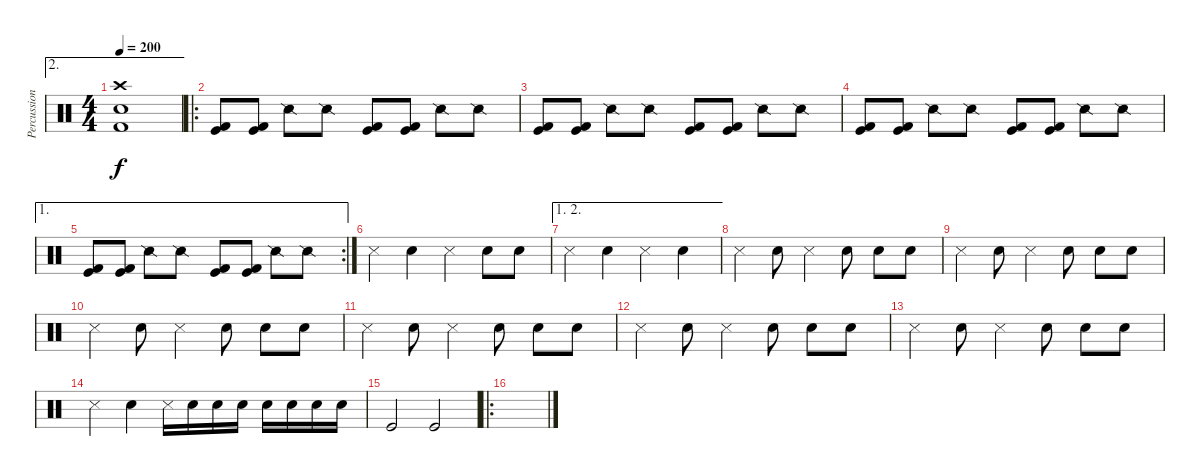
\track ("Percussions" "Percussion") {instrument percussion}
\staff {score}
\articulation defaults
\ae 2
\ts (4 4)
\tempo 200
\clef neutral
\ks c
("Snare (hit) 2" "Kick (hit) 2" "Crash high (hit)").1{dy f} |
\ro
("Kick (hit)" "Kick (hit) 2").8 ("Kick (hit)" "Kick (hit) 2").8 "Snare (side stick) 2".8 "Snare (side stick) 2".8 ("Kick (hit)" "Kick (hit) 2").8 ("Kick (hit)" "Kick (hit) 2").8 "Snare (side stick) 2".8 "Snare (side stick) 2".8 |
("Kick (hit)" "Kick (hit) 2").8 ("Kick (hit)" "Kick (hit) 2").8 "Snare (side stick) 2".8 "Snare (side stick) 2".8 ("Kick (hit)" "Kick (hit) 2").8 ("Kick (hit)" "Kick (hit) 2").8 "Snare (side stick) 2".8 "Snare (side stick) 2".8 |
("Kick (hit)" "Kick (hit) 2").8 ("Kick (hit)" "Kick (hit) 2").8 "Snare (side stick) 2".8 "Snare (side stick) 2".8 ("Kick (hit)" "Kick (hit) 2").8 ("Kick (hit)" "Kick (hit) 2").8 "Snare (side stick) 2".8 "Snare (side stick) 2".8 |
\ae 1
\rc 2
("Kick (hit)" "Kick (hit) 2").8 ("Kick (hit)" "Kick (hit) 2").8 "Snare (side stick) 2".8 "Snare (side stick) 2".8 ("Kick (hit)" "Kick (hit) 2").8 ("Kick (hit)" "Kick (hit) 2").8 "Snare (side stick) 2".8 "Snare (side stick) 2".8 |
"Snare (side stick) 3".4 "Snare (hit) 2".4 "Snare (side stick) 3".4 "Snare (hit) 2".8 "Snare (hit) 2".8 |
\ae (1 2)
"Snare (side stick) 3".4 "Snare (hit) 2".4 "Snare (side stick) 3".4 "Snare (hit) 2".4 |
"Snare (side stick) 3".4 "Snare (hit) 2".8 "Snare (side stick) 3".4 "Snare (hit) 2".8 "Snare (hit) 2".8 "Snare (hit) 2".8 |
"Snare (side stick) 3".4 "Snare (hit) 2".8 "Snare (side stick) 3".4 "Snare (hit) 2".8 "Snare (hit) 2".8 "Snare (hit) 2".8 |
"Snare (side stick) 3".4 "Snare (hit) 2".8 "Snare (side stick) 3".4 "Snare (hit) 2".8 "Snare (hit) 2".8 "Snare (hit) 2".8 |
"Snare (side stick) 3".4 "Snare (hit) 2".8 "Snare (side stick) 3".4 "Snare (hit) 2".8 "Snare (hit) 2".8 "Snare (hit) 2".8 |
"Snare (side stick) 3".4 "Snare (hit) 2".8 "Snare (side stick) 3".4 "Snare (hit) 2".8 "Snare (hit) 2".8 "Snare (hit) 2".8 |
"Snare (side stick) 3".4 "Snare (hit) 2".8 "Snare (side stick) 3".4 "Snare (hit) 2".8 "Snare (hit) 2".8 "Snare (hit) 2".8 |
"Snare (side stick) 3".4 "Snare (hit) 2".4 "Snare (side stick) 3".16 "Snare (hit) 2".16 "Snare (hit) 2".16 "Snare (hit) 2".16 "Snare (hit) 2".16 "Snare (hit) 2".16 "Snare (hit) 2".16 "Snare (hit) 2".16 |
"Kick (hit)".2 "Kick (hit)".2 |
\ro
